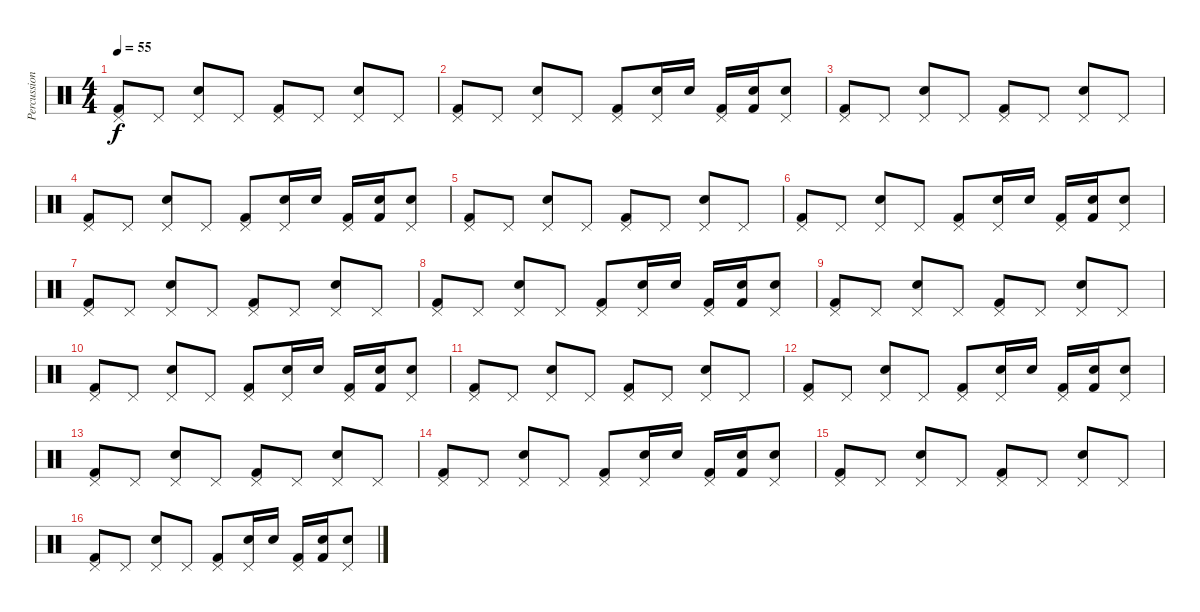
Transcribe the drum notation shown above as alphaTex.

\track ("Percussions" "Percussion") {instrument percussion}
\staff {score}
\articulation defaults
\ts (4 4)
\tempo 55
\clef neutral
\ks c
("Pedal Hi-Hat (hit)" "Kick (hit) 2").8{dy f} "Pedal Hi-Hat (hit)".8 ("Pedal Hi-Hat (hit)" "Electric Snare (hit)").8 "Pedal Hi-Hat (hit)".8 ("Pedal Hi-Hat (hit)" "Kick (hit) 2").8 "Pedal Hi-Hat (hit)".8 ("Pedal Hi-Hat (hit)" "Electric Snare (hit)").8 "Pedal Hi-Hat (hit)".8 |
("Pedal Hi-Hat (hit)" "Kick (hit) 2").8 "Pedal Hi-Hat (hit)".8 ("Pedal Hi-Hat (hit)" "Electric Snare (hit)").8 "Pedal Hi-Hat (hit)".8 ("Pedal Hi-Hat (hit)" "Kick (hit) 2").8 ("Pedal Hi-Hat (hit)" "Electric Snare (hit)").16 "Electric Snare (hit)".16 ("Pedal Hi-Hat (hit)" "Kick (hit) 2").16 ("Electric Snare (hit)" "Kick (hit) 2").16 ("Pedal Hi-Hat (hit)" "Electric Snare (hit)").8 |
("Pedal Hi-Hat (hit)" "Kick (hit) 2").8 "Pedal Hi-Hat (hit)".8 ("Pedal Hi-Hat (hit)" "Electric Snare (hit)").8 "Pedal Hi-Hat (hit)".8 ("Pedal Hi-Hat (hit)" "Kick (hit) 2").8 "Pedal Hi-Hat (hit)".8 ("Pedal Hi-Hat (hit)" "Electric Snare (hit)").8 "Pedal Hi-Hat (hit)".8 |
("Pedal Hi-Hat (hit)" "Kick (hit) 2").8 "Pedal Hi-Hat (hit)".8 ("Pedal Hi-Hat (hit)" "Electric Snare (hit)").8 "Pedal Hi-Hat (hit)".8 ("Pedal Hi-Hat (hit)" "Kick (hit) 2").8 ("Pedal Hi-Hat (hit)" "Electric Snare (hit)").16 "Electric Snare (hit)".16 ("Pedal Hi-Hat (hit)" "Kick (hit) 2").16 ("Electric Snare (hit)" "Kick (hit) 2").16 ("Pedal Hi-Hat (hit)" "Electric Snare (hit)").8 |
("Pedal Hi-Hat (hit)" "Kick (hit) 2").8 "Pedal Hi-Hat (hit)".8 ("Pedal Hi-Hat (hit)" "Electric Snare (hit)").8 "Pedal Hi-Hat (hit)".8 ("Pedal Hi-Hat (hit)" "Kick (hit) 2").8 "Pedal Hi-Hat (hit)".8 ("Pedal Hi-Hat (hit)" "Electric Snare (hit)").8 "Pedal Hi-Hat (hit)".8 |
("Pedal Hi-Hat (hit)" "Kick (hit) 2").8 "Pedal Hi-Hat (hit)".8 ("Pedal Hi-Hat (hit)" "Electric Snare (hit)").8 "Pedal Hi-Hat (hit)".8 ("Pedal Hi-Hat (hit)" "Kick (hit) 2").8 ("Pedal Hi-Hat (hit)" "Electric Snare (hit)").16 "Electric Snare (hit)".16 ("Pedal Hi-Hat (hit)" "Kick (hit) 2").16 ("Electric Snare (hit)" "Kick (hit) 2").16 ("Pedal Hi-Hat (hit)" "Electric Snare (hit)").8 |
("Pedal Hi-Hat (hit)" "Kick (hit) 2").8 "Pedal Hi-Hat (hit)".8 ("Pedal Hi-Hat (hit)" "Electric Snare (hit)").8 "Pedal Hi-Hat (hit)".8 ("Pedal Hi-Hat (hit)" "Kick (hit) 2").8 "Pedal Hi-Hat (hit)".8 ("Pedal Hi-Hat (hit)" "Electric Snare (hit)").8 "Pedal Hi-Hat (hit)".8 |
("Pedal Hi-Hat (hit)" "Kick (hit) 2").8 "Pedal Hi-Hat (hit)".8 ("Pedal Hi-Hat (hit)" "Electric Snare (hit)").8 "Pedal Hi-Hat (hit)".8 ("Pedal Hi-Hat (hit)" "Kick (hit) 2").8 ("Pedal Hi-Hat (hit)" "Electric Snare (hit)").16 "Electric Snare (hit)".16 ("Pedal Hi-Hat (hit)" "Kick (hit) 2").16 ("Electric Snare (hit)" "Kick (hit) 2").16 ("Pedal Hi-Hat (hit)" "Electric Snare (hit)").8 |
("Pedal Hi-Hat (hit)" "Kick (hit) 2").8 "Pedal Hi-Hat (hit)".8 ("Pedal Hi-Hat (hit)" "Electric Snare (hit)").8 "Pedal Hi-Hat (hit)".8 ("Pedal Hi-Hat (hit)" "Kick (hit) 2").8 "Pedal Hi-Hat (hit)".8 ("Pedal Hi-Hat (hit)" "Electric Snare (hit)").8 "Pedal Hi-Hat (hit)".8 |
("Pedal Hi-Hat (hit)" "Kick (hit) 2").8 "Pedal Hi-Hat (hit)".8 ("Pedal Hi-Hat (hit)" "Electric Snare (hit)").8 "Pedal Hi-Hat (hit)".8 ("Pedal Hi-Hat (hit)" "Kick (hit) 2").8 ("Pedal Hi-Hat (hit)" "Electric Snare (hit)").16 "Electric Snare (hit)".16 ("Pedal Hi-Hat (hit)" "Kick (hit) 2").16 ("Electric Snare (hit)" "Kick (hit) 2").16 ("Pedal Hi-Hat (hit)" "Electric Snare (hit)").8 |
("Pedal Hi-Hat (hit)" "Kick (hit) 2").8 "Pedal Hi-Hat (hit)".8 ("Pedal Hi-Hat (hit)" "Electric Snare (hit)").8 "Pedal Hi-Hat (hit)".8 ("Pedal Hi-Hat (hit)" "Kick (hit) 2").8 "Pedal Hi-Hat (hit)".8 ("Pedal Hi-Hat (hit)" "Electric Snare (hit)").8 "Pedal Hi-Hat (hit)".8 |
("Pedal Hi-Hat (hit)" "Kick (hit) 2").8 "Pedal Hi-Hat (hit)".8 ("Pedal Hi-Hat (hit)" "Electric Snare (hit)").8 "Pedal Hi-Hat (hit)".8 ("Pedal Hi-Hat (hit)" "Kick (hit) 2").8 ("Pedal Hi-Hat (hit)" "Electric Snare (hit)").16 "Electric Snare (hit)".16 ("Pedal Hi-Hat (hit)" "Kick (hit) 2").16 ("Electric Snare (hit)" "Kick (hit) 2").16 ("Pedal Hi-Hat (hit)" "Electric Snare (hit)").8 |
("Pedal Hi-Hat (hit)" "Kick (hit) 2").8 "Pedal Hi-Hat (hit)".8 ("Pedal Hi-Hat (hit)" "Electric Snare (hit)").8 "Pedal Hi-Hat (hit)".8 ("Pedal Hi-Hat (hit)" "Kick (hit) 2").8 "Pedal Hi-Hat (hit)".8 ("Pedal Hi-Hat (hit)" "Electric Snare (hit)").8 "Pedal Hi-Hat (hit)".8 |
("Pedal Hi-Hat (hit)" "Kick (hit) 2").8 "Pedal Hi-Hat (hit)".8 ("Pedal Hi-Hat (hit)" "Electric Snare (hit)").8 "Pedal Hi-Hat (hit)".8 ("Pedal Hi-Hat (hit)" "Kick (hit) 2").8 ("Pedal Hi-Hat (hit)" "Electric Snare (hit)").16 "Electric Snare (hit)".16 ("Pedal Hi-Hat (hit)" "Kick (hit) 2").16 ("Electric Snare (hit)" "Kick (hit) 2").16 ("Pedal Hi-Hat (hit)" "Electric Snare (hit)").8 |
("Pedal Hi-Hat (hit)" "Kick (hit) 2").8 "Pedal Hi-Hat (hit)".8 ("Pedal Hi-Hat (hit)" "Electric Snare (hit)").8 "Pedal Hi-Hat (hit)".8 ("Pedal Hi-Hat (hit)" "Kick (hit) 2").8 "Pedal Hi-Hat (hit)".8 ("Pedal Hi-Hat (hit)" "Electric Snare (hit)").8 "Pedal Hi-Hat (hit)".8 |
("Pedal Hi-Hat (hit)" "Kick (hit) 2").8 "Pedal Hi-Hat (hit)".8 ("Pedal Hi-Hat (hit)" "Electric Snare (hit)").8 "Pedal Hi-Hat (hit)".8 ("Pedal Hi-Hat (hit)" "Kick (hit) 2").8 ("Pedal Hi-Hat (hit)" "Electric Snare (hit)").16 "Electric Snare (hit)".16 ("Pedal Hi-Hat (hit)" "Kick (hit) 2").16 ("Electric Snare (hit)" "Kick (hit) 2").16 ("Pedal Hi-Hat (hit)" "Electric Snare (hit)").8
